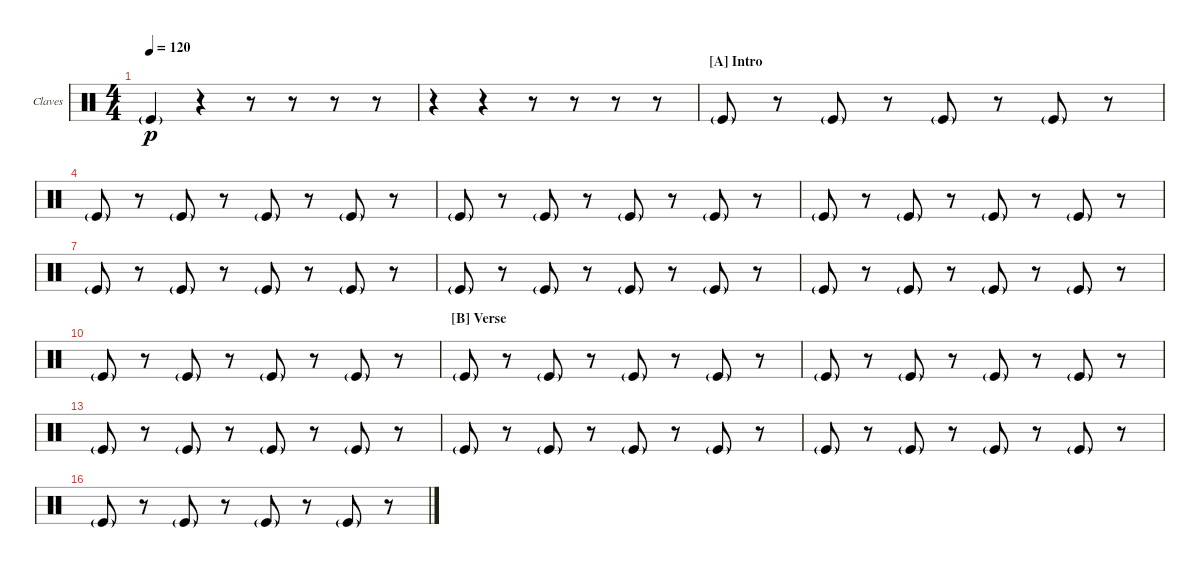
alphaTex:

\bracketExtendMode nobrackets
\firstSystemTrackNameOrientation horizontal
\otherSystemsTrackNameOrientation horizontal
\defaultBarNumberDisplay FirstOfSystem
\track ("Claves" "Claves") {instrument percussion}
\staff {score}
\articulation defaults
\ts (4 4)
\tempo 120
\clef neutral
\scale
0.210256
\ks c "Kick (hit)"{g}.4{dy p}
r.4 r.8 r.8 r.8 r.8 |
\scale
0.212821 r.4 r.4 r.8 r.8 r.8 r.8 |
\section ("A" "Intro")
\scale
0.25 "Kick (hit)"{g}.8 r.8 "Kick (hit)"{g}.8 r.8 "Kick (hit)"{g}.8 r.8 "Kick (hit)"{g}.8 r.8 |
\scale
0.25 "Kick (hit)"{g}.8 r.8 "Kick (hit)"{g}.8 r.8 "Kick (hit)"{g}.8 r.8 "Kick (hit)"{g}.8 r.8 |
\scale
0.25 "Kick (hit)"{g}.8 r.8 "Kick (hit)"{g}.8 r.8 "Kick (hit)"{g}.8 r.8 "Kick (hit)"{g}.8 r.8 |
\scale
0.25 "Kick (hit)"{g}.8 r.8 "Kick (hit)"{g}.8 r.8 "Kick (hit)"{g}.8 r.8 "Kick (hit)"{g}.8 r.8 |
\scale
0.240741 "Kick (hit)"{g}.8 r.8 "Kick (hit)"{g}.8 r.8 "Kick (hit)"{g}.8 r.8 "Kick (hit)"{g}.8 r.8 |
\scale
0.240741 "Kick (hit)"{g}.8 r.8 "Kick (hit)"{g}.8 r.8 "Kick (hit)"{g}.8 r.8 "Kick (hit)"{g}.8 r.8 |
\scale
0.277778 "Kick (hit)"{g}.8 r.8 "Kick (hit)"{g}.8 r.8 "Kick (hit)"{g}.8 r.8 "Kick (hit)"{g}.8 r.8 |
\scale
0.240741 "Kick (hit)"{g}.8 r.8 "Kick (hit)"{g}.8 r.8 "Kick (hit)"{g}.8 r.8 "Kick (hit)"{g}.8 r.8 |
\section ("B" "Verse")
\scale
0.245283 "Kick (hit)"{g}.8 r.8 "Kick (hit)"{g}.8 r.8 "Kick (hit)"{g}.8 r.8 "Kick (hit)"{g}.8 r.8 |
\scale
0.245283 "Kick (hit)"{g}.8 r.8 "Kick (hit)"{g}.8 r.8 "Kick (hit)"{g}.8 r.8 "Kick (hit)"{g}.8 r.8 |
\scale
0.264151 "Kick (hit)"{g}.8 r.8 "Kick (hit)"{g}.8 r.8 "Kick (hit)"{g}.8 r.8 "Kick (hit)"{g}.8 r.8 |
\scale
0.245283 "Kick (hit)"{g}.8 r.8 "Kick (hit)"{g}.8 r.8 "Kick (hit)"{g}.8 r.8 "Kick (hit)"{g}.8 r.8 |
\scale
0.277778 "Kick (hit)"{g}.8 r.8 "Kick (hit)"{g}.8 r.8 "Kick (hit)"{g}.8 r.8 "Kick (hit)"{g}.8 r.8 |
\scale
0.240741 "Kick (hit)"{g}.8 r.8 "Kick (hit)"{g}.8 r.8 "Kick (hit)"{g}.8 r.8 "Kick (hit)"{g}.8 r.8
